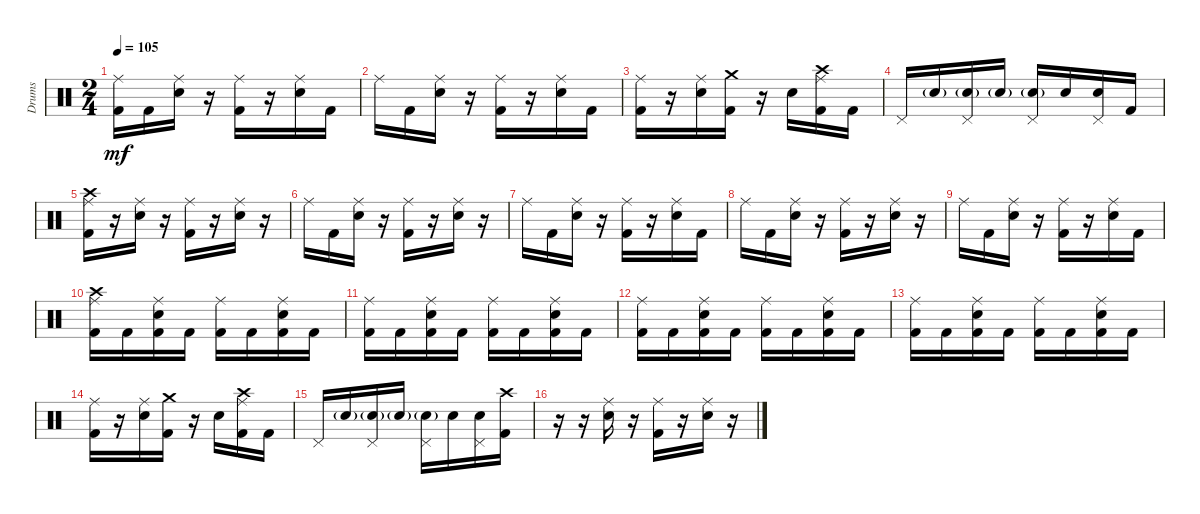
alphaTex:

\defaultSystemsLayout 4
\bracketExtendMode groupsimilarinstruments
\otherSystemsTrackNameOrientation horizontal
\track ("Godd" "Drums") {instrument percussion}
\staff {score}
\articulation defaults
\ts (2 4)
\tempo 105
\clef neutral
\ks c
("Ride (middle)" "Kick (hit) 2").16{dy mf} "Kick (hit) 2".16 ("Ride (middle)" "Snare (hit) 2").16 r.16 ("Ride (middle)" "Kick (hit) 2").16 r.16 ("Ride (middle)" "Snare (hit) 2").16 "Kick (hit) 2".16 |
"Ride (middle)".16 "Kick (hit) 2".16 ("Ride (middle)" "Snare (hit) 2").16 r.16 ("Ride (middle)" "Kick (hit) 2").16 r.16 ("Ride (middle)" "Snare (hit) 2").16 "Kick (hit) 2".16 |
("Ride (middle)" "Kick (hit) 2").16 r.16 ("Ride (middle)" "Snare (hit) 2").16 ("Kick (hit) 2" "Crash medium (hit)").16 r.16 "Snare (hit) 2".16 ("Ride (middle)" "Crash high (hit)" "Kick (hit) 2").16 "Kick (hit) 2".16 |
"Pedal Hi-Hat (hit)".16 "Snare (hit) 2"{g}.16 ("Pedal Hi-Hat (hit)" "Snare (hit) 2"{g}).16 "Snare (hit) 2"{g}.16 ("Pedal Hi-Hat (hit)" "Snare (hit) 2"{g}).16 "Snare (hit) 2".16 ("Pedal Hi-Hat (hit)" "Snare (hit) 2").16 "Kick (hit) 2".16 |
("Ride (middle)" "Crash high (hit)" "Kick (hit) 2").16 r.16 ("Ride (middle)" "Snare (hit) 2").16 r.16 ("Ride (middle)" "Kick (hit) 2").16 r.16 ("Ride (middle)" "Snare (hit) 2").16 r.16 |
"Ride (middle)".16 "Kick (hit) 2".16 ("Ride (middle)" "Snare (hit) 2").16 r.16 ("Ride (middle)" "Kick (hit) 2").16 r.16 ("Ride (middle)" "Snare (hit) 2").16 r.16 |
"Ride (middle)".16 "Kick (hit) 2".16 ("Ride (middle)" "Snare (hit) 2").16 r.16 ("Ride (middle)" "Kick (hit) 2").16 r.16 ("Ride (middle)" "Snare (hit) 2").16 "Kick (hit) 2".16 |
"Ride (middle)".16 "Kick (hit) 2".16 ("Ride (middle)" "Snare (hit) 2").16 r.16 ("Ride (middle)" "Kick (hit) 2").16 r.16 ("Ride (middle)" "Snare (hit) 2").16 r.16 |
"Ride (middle)".16 "Kick (hit) 2".16 ("Ride (middle)" "Snare (hit) 2").16 r.16 ("Ride (middle)" "Kick (hit) 2").16 r.16 ("Ride (middle)" "Snare (hit) 2").16 "Kick (hit) 2".16 |
("Ride (middle)" "Crash high (hit)" "Kick (hit) 2").16 "Kick (hit) 2".16 ("Ride (middle)" "Snare (hit) 2" "Kick (hit) 2").16 "Kick (hit) 2".16 ("Ride (middle)" "Kick (hit) 2").16 "Kick (hit) 2".16 ("Ride (middle)" "Snare (hit) 2" "Kick (hit) 2").16 "Kick (hit) 2".16 |
("Ride (middle)" "Kick (hit) 2").16 "Kick (hit) 2".16 ("Ride (middle)" "Snare (hit) 2" "Kick (hit) 2").16 "Kick (hit) 2".16 ("Ride (middle)" "Kick (hit) 2").16 "Kick (hit) 2".16 ("Ride (middle)" "Snare (hit) 2" "Kick (hit) 2").16 "Kick (hit) 2".16 |
("Ride (middle)" "Kick (hit) 2").16 "Kick (hit) 2".16 ("Ride (middle)" "Snare (hit) 2" "Kick (hit) 2").16 "Kick (hit) 2".16 ("Ride (middle)" "Kick (hit) 2").16 "Kick (hit) 2".16 ("Ride (middle)" "Snare (hit) 2" "Kick (hit) 2").16 "Kick (hit) 2".16 |
("Ride (middle)" "Kick (hit) 2").16 "Kick (hit) 2".16 ("Ride (middle)" "Snare (hit) 2" "Kick (hit) 2").16 "Kick (hit) 2".16 ("Ride (middle)" "Kick (hit) 2").16 "Kick (hit) 2".16 ("Ride (middle)" "Snare (hit) 2" "Kick (hit) 2").16 "Kick (hit) 2".16 |
("Ride (middle)" "Kick (hit) 2").16 r.16 ("Ride (middle)" "Snare (hit) 2").16 ("Kick (hit) 2" "Crash medium (hit)").16 r.16 "Snare (hit) 2".16 ("Ride (middle)" "Crash high (hit)" "Kick (hit) 2").16 "Kick (hit) 2".16 |
"Pedal Hi-Hat (hit)".16 "Snare (hit) 2"{g}.16 ("Pedal Hi-Hat (hit)" "Snare (hit) 2"{g}).16 "Snare (hit) 2"{g}.16 ("Pedal Hi-Hat (hit)" "Snare (hit) 2"{g}).16 "Snare (hit) 2".16 ("Pedal Hi-Hat (hit)" "Snare (hit) 2").16 ("Kick (hit) 2" "Crash high (hit)").16 |
r.16 r.16 ("Ride (middle)" "Snare (hit) 2").16 r.16 ("Ride (middle)" "Kick (hit) 2").16 r.16 ("Ride (middle)" "Snare (hit) 2").16 r.16
